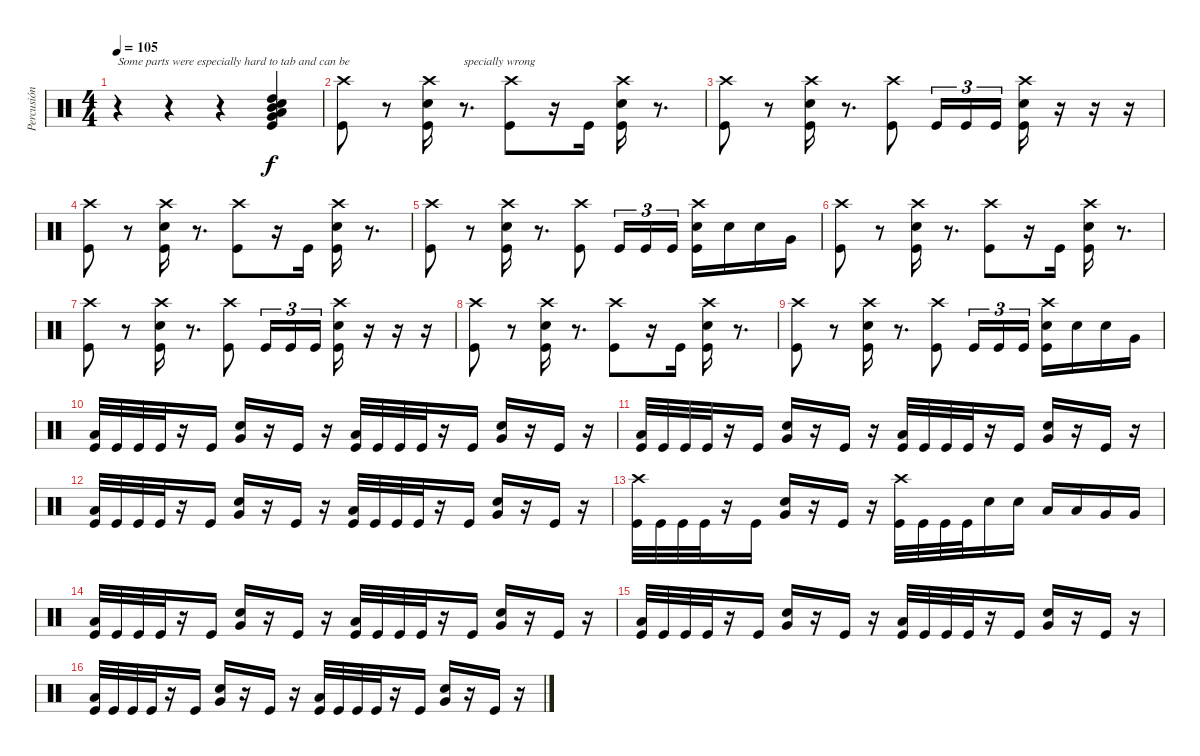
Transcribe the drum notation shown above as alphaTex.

\track ("Percusión" "Percusión") {instrument percussion}
\staff {score}
\articulation defaults
\ts (4 4)
\tempo 105
\clef neutral
\ks c
r.4{txt "Some parts were especially hard to tab and can be " dy f} r.4 r.4 ("Very Low Tom (hit)" "Snare (hit) 2" "Low Floor Tom (hit)" "High Tom (hit)" "Mid Tom (hit)" "Kick (hit)").4 |
("Crash high (hit)" "Kick (hit)").8 r.8 ("Crash high (hit)" "Snare (hit) 2" "Kick (hit)").16 r.8{d txt "specially wrong"} ("Crash high (hit)" "Kick (hit)").8 r.16 "Kick (hit)".16 ("Crash high (hit)" "Snare (hit) 2" "Kick (hit)").16 r.8{d} |
("Crash high (hit)" "Kick (hit)").8 r.8 ("Crash high (hit)" "Snare (hit) 2" "Kick (hit)").16 r.8{d} ("Crash high (hit)" "Kick (hit)").8 "Kick (hit)".16{tu (3 2)} "Kick (hit)".16{tu (3 2)} "Kick (hit)".16{tu (3 2)} ("Crash high (hit)" "Snare (hit) 2" "Kick (hit)").16 r.16 r.16 r.16 |
("Crash high (hit)" "Kick (hit)").8 r.8 ("Crash high (hit)" "Snare (hit) 2" "Kick (hit)").16 r.8{d} ("Crash high (hit)" "Kick (hit)").8 r.16 "Kick (hit)".16 ("Crash high (hit)" "Snare (hit) 2" "Kick (hit)").16 r.8{d} |
("Crash high (hit)" "Kick (hit)").8 r.8 ("Crash high (hit)" "Snare (hit) 2" "Kick (hit)").16 r.8{d} ("Crash high (hit)" "Kick (hit)").8 "Kick (hit)".16{tu (3 2)} "Kick (hit)".16{tu (3 2)} "Kick (hit)".16{tu (3 2)} ("Crash high (hit)" "Snare (hit) 2" "Kick (hit)").16 "Snare (hit) 2".16 "Snare (hit) 2".16 "Very Low Tom (hit)".16 |
("Crash high (hit)" "Kick (hit)").8 r.8 ("Crash high (hit)" "Snare (hit) 2" "Kick (hit)").16 r.8{d} ("Crash high (hit)" "Kick (hit)").8 r.16 "Kick (hit)".16 ("Crash high (hit)" "Snare (hit) 2" "Kick (hit)").16 r.8{d} |
("Crash high (hit)" "Kick (hit)").8 r.8 ("Crash high (hit)" "Snare (hit) 2" "Kick (hit)").16 r.8{d} ("Crash high (hit)" "Kick (hit)").8 "Kick (hit)".16{tu (3 2)} "Kick (hit)".16{tu (3 2)} "Kick (hit)".16{tu (3 2)} ("Crash high (hit)" "Snare (hit) 2" "Kick (hit)").16 r.16 r.16 r.16 |
("Crash high (hit)" "Kick (hit)").8 r.8 ("Crash high (hit)" "Snare (hit) 2" "Kick (hit)").16 r.8{d} ("Crash high (hit)" "Kick (hit)").8 r.16 "Kick (hit)".16 ("Crash high (hit)" "Snare (hit) 2" "Kick (hit)").16 r.8{d} |
("Crash high (hit)" "Kick (hit)").8 r.8 ("Crash high (hit)" "Snare (hit) 2" "Kick (hit)").16 r.8{d} ("Crash high (hit)" "Kick (hit)").8 "Kick (hit)".16{tu (3 2)} "Kick (hit)".16{tu (3 2)} "Kick (hit)".16{tu (3 2)} ("Crash high (hit)" "Snare (hit) 2" "Kick (hit)").16 "Snare (hit) 2".16 "Snare (hit) 2".16 "Very Low Tom (hit)".16 |
("Low Floor Tom (hit)" "Kick (hit)").32 "Kick (hit)".32 "Kick (hit)".32 "Kick (hit)".32 r.16 "Kick (hit)".16 ("Snare (hit) 2" "Very Low Tom (hit)").16 r.16 "Kick (hit)".16 r.16 ("Low Floor Tom (hit)" "Kick (hit)").32 "Kick (hit)".32 "Kick (hit)".32 "Kick (hit)".32 r.16 "Kick (hit)".16 ("Snare (hit) 2" "Very Low Tom (hit)").16 r.16 "Kick (hit)".16 r.16 |
("Low Floor Tom (hit)" "Kick (hit)").32 "Kick (hit)".32 "Kick (hit)".32 "Kick (hit)".32 r.16 "Kick (hit)".16 ("Snare (hit) 2" "Very Low Tom (hit)").16 r.16 "Kick (hit)".16 r.16 ("Low Floor Tom (hit)" "Kick (hit)").32 "Kick (hit)".32 "Kick (hit)".32 "Kick (hit)".32 r.16 "Kick (hit)".16 ("Snare (hit) 2" "Very Low Tom (hit)").16 r.16 "Kick (hit)".16 r.16 |
("Low Floor Tom (hit)" "Kick (hit)").32 "Kick (hit)".32 "Kick (hit)".32 "Kick (hit)".32 r.16 "Kick (hit)".16 ("Snare (hit) 2" "Very Low Tom (hit)").16 r.16 "Kick (hit)".16 r.16 ("Low Floor Tom (hit)" "Kick (hit)").32 "Kick (hit)".32 "Kick (hit)".32 "Kick (hit)".32 r.16 "Kick (hit)".16 ("Snare (hit) 2" "Very Low Tom (hit)").16 r.16 "Kick (hit)".16 r.16 |
("Crash high (hit)" "Kick (hit)").32 "Kick (hit)".32 "Kick (hit)".32 "Kick (hit)".32 r.16 "Kick (hit)".16 ("Snare (hit) 2" "Very Low Tom (hit)").16 r.16 "Kick (hit)".16 r.16 ("Crash high (hit)" "Kick (hit)").32 "Kick (hit)".32 "Kick (hit)".32 "Kick (hit)".32 "Snare (hit) 2".16 "Snare (hit) 2".16 "Low Floor Tom (hit)".16 "Low Floor Tom (hit)".16 "Very Low Tom (hit)".16 "Very Low Tom (hit)".16 |
("Low Floor Tom (hit)" "Kick (hit)").32 "Kick (hit)".32 "Kick (hit)".32 "Kick (hit)".32 r.16 "Kick (hit)".16 ("Snare (hit) 2" "Very Low Tom (hit)").16 r.16 "Kick (hit)".16 r.16 ("Low Floor Tom (hit)" "Kick (hit)").32 "Kick (hit)".32 "Kick (hit)".32 "Kick (hit)".32 r.16 "Kick (hit)".16 ("Snare (hit) 2" "Very Low Tom (hit)").16 r.16 "Kick (hit)".16 r.16 |
("Low Floor Tom (hit)" "Kick (hit)").32 "Kick (hit)".32 "Kick (hit)".32 "Kick (hit)".32 r.16 "Kick (hit)".16 ("Snare (hit) 2" "Very Low Tom (hit)").16 r.16 "Kick (hit)".16 r.16 ("Low Floor Tom (hit)" "Kick (hit)").32 "Kick (hit)".32 "Kick (hit)".32 "Kick (hit)".32 r.16 "Kick (hit)".16 ("Snare (hit) 2" "Very Low Tom (hit)").16 r.16 "Kick (hit)".16 r.16 |
("Low Floor Tom (hit)" "Kick (hit)").32 "Kick (hit)".32 "Kick (hit)".32 "Kick (hit)".32 r.16 "Kick (hit)".16 ("Snare (hit) 2" "Very Low Tom (hit)").16 r.16 "Kick (hit)".16 r.16 ("Low Floor Tom (hit)" "Kick (hit)").32 "Kick (hit)".32 "Kick (hit)".32 "Kick (hit)".32 r.16 "Kick (hit)".16 ("Snare (hit) 2" "Very Low Tom (hit)").16 r.16 "Kick (hit)".16 r.16
